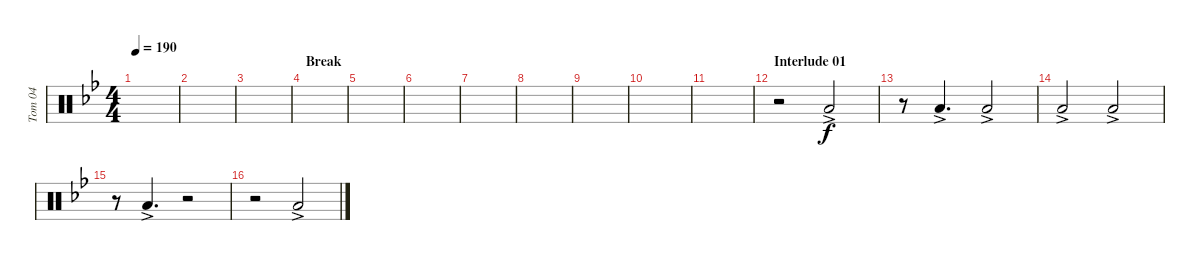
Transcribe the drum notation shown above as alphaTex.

\track ("Tom 04" "Tom 04") {instrument percussion}
\staff {score}
\articulation defaults
\ts (4 4)
\tempo 190
\clef neutral
\ks bb
|
|
|
\section ("" "Break")
|
|
|
|
|
|
|
|
\section ("" "Interlude 01")
r.2 "Low Tom (hit)"{ac}.2 |
r.8 "Low Tom (hit)"{ac}.4{d} "Low Tom (hit)"{ac}.2 |
"Low Tom (hit)"{ac}.2 "Low Tom (hit)"{ac}.2 |
r.8 "Low Tom (hit)"{ac}.4{d} r.2 |
r.2 "Low Tom (hit)"{ac}.2
